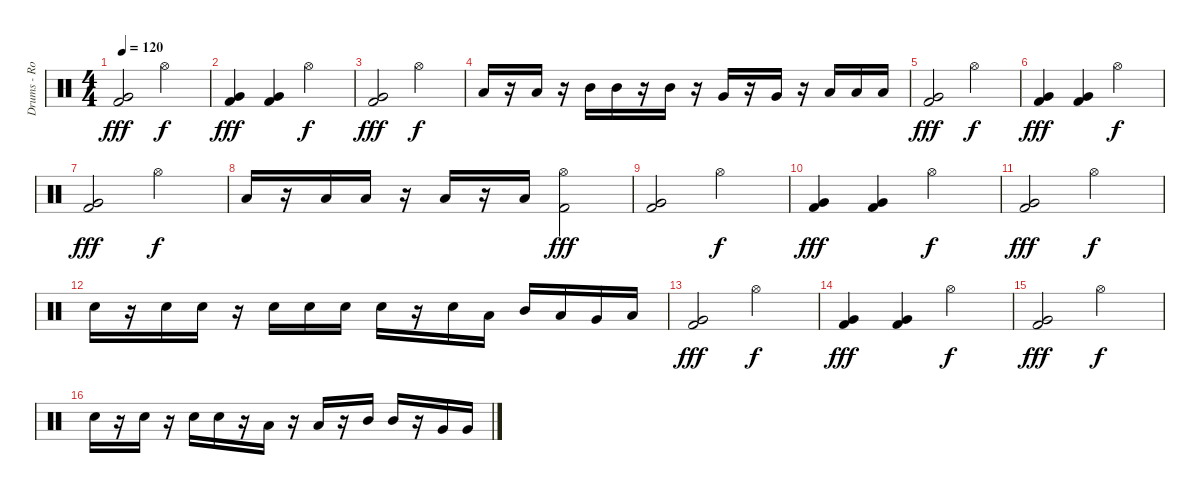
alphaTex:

\track ("Drums - Rodrigo" "Drums - Ro") {instrument percussion}
\staff {score}
\articulation defaults
\ts (4 4)
\tempo 120
\clef neutral
\ks c
("Very Low Tom (hit)" "Kick (hit) 2").2{dy fff} "Hi-Hat (open)".2{dy f} |
("Very Low Tom (hit)" "Kick (hit) 2").4{dy fff} ("Very Low Tom (hit)" "Kick (hit) 2").4 "Hi-Hat (open)".2{dy f} |
("Very Low Tom (hit)" "Kick (hit) 2").2{dy fff} "Hi-Hat (open)".2{dy f} |
"Low Tom (hit)".16 r.16 "Low Tom (hit)".16 r.16 "Mid Tom (hit)".16 "Mid Tom (hit)".16 r.16 "Mid Tom (hit)".16 r.16 "Very Low Tom (hit)".16 r.16 "Very Low Tom (hit)".16 r.16 "Low Floor Tom (hit)".16 "Low Floor Tom (hit)".16 "Low Floor Tom (hit)".16 |
("Very Low Tom (hit)" "Kick (hit) 2").2{dy fff} "Hi-Hat (open)".2{dy f} |
("Very Low Tom (hit)" "Kick (hit) 2").4{dy fff} ("Very Low Tom (hit)" "Kick (hit) 2").4 "Hi-Hat (open)".2{dy f} |
("Very Low Tom (hit)" "Kick (hit) 2").2{dy fff} "Hi-Hat (open)".2{dy f} |
"Low Tom (hit)".16 r.16 "Low Tom (hit)".16 "Low Tom (hit)".16 r.16 "Low Floor Tom (hit)".16 r.16 "Low Floor Tom (hit)".16 ("Hi-Hat (open)" "Kick (hit) 2").2{dy fff} |
("Very Low Tom (hit)" "Kick (hit) 2").2 "Hi-Hat (open)".2{dy f} |
("Very Low Tom (hit)" "Kick (hit) 2").4{dy fff} ("Very Low Tom (hit)" "Kick (hit) 2").4 "Hi-Hat (open)".2{dy f} |
("Very Low Tom (hit)" "Kick (hit) 2").2{dy fff} "Hi-Hat (open)".2{dy f} |
"Electric Snare (hit)".16 r.16 "Electric Snare (hit)".16 "Electric Snare (hit)".16 r.16 "Electric Snare (hit)".16 "Electric Snare (hit)".16 "Electric Snare (hit)".16 "Electric Snare (hit)".16 r.16 "Electric Snare (hit)".16 "Low Tom (hit)".16 "Mid Tom (hit)".16 "Low Tom (hit)".16 "Very Low Tom (hit)".16 "Low Floor Tom (hit)".16 |
("Very Low Tom (hit)" "Kick (hit) 2").2{dy fff} "Hi-Hat (open)".2{dy f} |
("Very Low Tom (hit)" "Kick (hit) 2").4{dy fff} ("Very Low Tom (hit)" "Kick (hit) 2").4 "Hi-Hat (open)".2{dy f} |
("Very Low Tom (hit)" "Kick (hit) 2").2{dy fff} "Hi-Hat (open)".2{dy f} |
"Electric Snare (hit)".16 r.16 "Electric Snare (hit)".16 r.16 "Electric Snare (hit)".16 "Electric Snare (hit)".16 r.16 "Low Tom (hit)".16 r.16 "Low Tom (hit)".16 r.16 "Mid Tom (hit)".16 "Mid Tom (hit)".16 r.16 "Very Low Tom (hit)".16 "Very Low Tom (hit)".16
